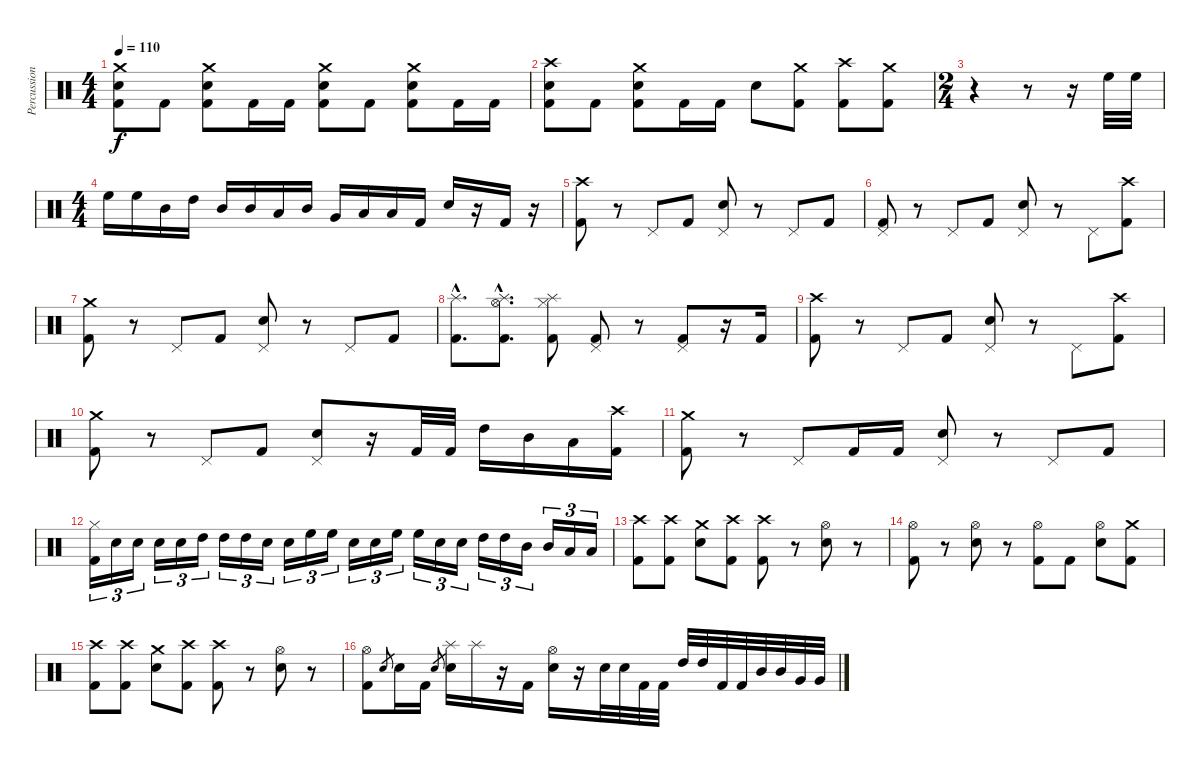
\track ("Percussion" "Percussion") {instrument percussion}
\staff {score}
\articulation defaults
\ts (4 4)
\tempo 110
\clef neutral
\ks c
("Crash medium (hit)" "Electric Snare (hit)" "Kick (hit) 2").8{dy f} "Kick (hit) 2".8 ("Crash medium (hit)" "Electric Snare (hit)" "Kick (hit) 2").8 "Kick (hit) 2".16 "Kick (hit) 2".16 ("Crash medium (hit)" "Electric Snare (hit)" "Kick (hit) 2").8 "Kick (hit) 2".8 ("Crash medium (hit)" "Electric Snare (hit)" "Kick (hit) 2").8 "Kick (hit) 2".16 "Kick (hit) 2".16 |
("Crash high (hit)" "Electric Snare (hit)" "Kick (hit) 2").8 "Kick (hit) 2".8 ("Crash medium (hit)" "Electric Snare (hit)" "Kick (hit) 2").8 "Kick (hit) 2".16 "Kick (hit) 2".16 "Electric Snare (hit)".8 ("Crash medium (hit)" "Kick (hit) 2").8 ("Crash high (hit)" "Kick (hit) 2").8 ("Crash medium (hit)" "Kick (hit) 2").8 |
\ts (2 4)
r.4 r.8 r.16 "High Floor Tom (hit)".32 "High Floor Tom (hit)".32 |
\ts (4 4)
"High Floor Tom (hit)".16 "High Floor Tom (hit)".16 "Mid Tom (hit)".16 "High Tom (hit)".16 "Mid Tom (hit)".16 "Mid Tom (hit)".16 "Low Tom (hit)".16 "Mid Tom (hit)".16 "Very Low Tom (hit)".16 "Low Tom (hit)".16 "Low Tom (hit)".16 "Kick (hit) 2".16 "Electric Snare (hit)".16 r.16 "Kick (hit) 2".16 r.16 |
("Crash high (hit)" "Kick (hit) 2").8 r.8 "Pedal Hi-Hat (hit)".8 "Kick (hit) 2".8 ("Pedal Hi-Hat (hit)" "Electric Snare (hit)").8 r.8 "Pedal Hi-Hat (hit)".8 "Kick (hit) 2".8 |
("Pedal Hi-Hat (hit)" "Kick (hit) 2").8 r.8 "Pedal Hi-Hat (hit)".8 "Kick (hit) 2".8 ("Pedal Hi-Hat (hit)" "Electric Snare (hit)").8 r.8 "Pedal Hi-Hat (hit)".8 ("Crash high (hit)" "Kick (hit) 2").8 |
("Crash medium (hit)" "Kick (hit) 2").8 r.8 "Pedal Hi-Hat (hit)".8 "Kick (hit) 2".8 ("Pedal Hi-Hat (hit)" "Electric Snare (hit)").8 r.8 "Pedal Hi-Hat (hit)".8 "Kick (hit) 2".8 |
("Splash (hit)"{hac} "Kick (hit) 2"{hac}).8{d} ("Splash (hit)"{hac} "Hi-Hat (open)"{hac} "Kick (hit) 2"{hac}).8{d} ("Splash (hit)" "Hi-Hat (closed)" "Kick (hit) 2").8 ("Pedal Hi-Hat (hit)" "Kick (hit) 2").8 r.8 ("Pedal Hi-Hat (hit)" "Kick (hit) 2").8 r.16 "Kick (hit) 2".16 |
("Crash high (hit)" "Kick (hit) 2").8 r.8 "Pedal Hi-Hat (hit)".8 "Kick (hit) 2".8 ("Pedal Hi-Hat (hit)" "Electric Snare (hit)").8 r.8 "Pedal Hi-Hat (hit)".8 ("Crash high (hit)" "Kick (hit) 2").8 |
("Crash medium (hit)" "Kick (hit) 2").8 r.8 "Pedal Hi-Hat (hit)".8 "Kick (hit) 2".8 ("Pedal Hi-Hat (hit)" "Electric Snare (hit)").8 r.16 "Kick (hit) 2".32 "Kick (hit) 2".32 "High Tom (hit)".16 "Mid Tom (hit)".16 "Low Tom (hit)".16 ("Crash high (hit)" "Kick (hit) 2").16 |
("Crash medium (hit)" "Kick (hit) 2").8 r.8 "Pedal Hi-Hat (hit)".8 "Kick (hit) 2".16 "Kick (hit) 2".16 ("Pedal Hi-Hat (hit)" "Electric Snare (hit)").8 r.8 "Pedal Hi-Hat (hit)".8 "Kick (hit) 2".8 |
("Hi-Hat (closed)" "Kick (hit) 2").16{tu (3 2)} "Electric Snare (hit)".16{tu (3 2)} "Electric Snare (hit)".16{tu (3 2)} "Electric Snare (hit)".16{tu (3 2)} "Electric Snare (hit)".16{tu (3 2)} "High Tom (hit)".16{tu (3 2)} "High Tom (hit)".16{tu (3 2)} "High Tom (hit)".16{tu (3 2)} "Electric Snare (hit)".16{tu (3 2)} "Electric Snare (hit)".16{tu (3 2)} "High Floor Tom (hit)".16{tu (3 2)} "High Floor Tom (hit)".16{tu (3 2)} "Electric Snare (hit)".16{tu (3 2)} "Electric Snare (hit)".16{tu (3 2)} "High Floor Tom (hit)".16{tu (3 2)} "High Floor Tom (hit)".16{tu (3 2)} "Electric Snare (hit)".16{tu (3 2)} "Electric Snare (hit)".16{tu (3 2)} "High Tom (hit)".16{tu (3 2)} "High Tom (hit)".16{tu (3 2)} "Mid Tom (hit)".16{tu (3 2)} "Mid Tom (hit)".16{tu (3 2)} "Low Tom (hit)".16{tu (3 2)} "Low Tom (hit)".16{tu (3 2)} |
("Crash high (hit)" "Kick (hit) 2").8 ("Crash high (hit)" "Kick (hit) 2").8 ("Crash medium (hit)" "Electric Snare (hit)").8 ("Crash high (hit)" "Kick (hit) 2").8 ("Crash high (hit)" "Kick (hit) 2").8 r.8 ("Hi-Hat (open)" "Electric Snare (hit)").8 r.8 |
("Hi-Hat (open)" "Kick (hit) 2").8 r.8 ("Hi-Hat (open)" "Electric Snare (hit)").8 r.8 ("Hi-Hat (open)" "Kick (hit) 2").8 "Kick (hit) 2".8 ("Hi-Hat (open)" "Electric Snare (hit)").8 ("Crash medium (hit)" "Kick (hit) 2").8 |
("Crash high (hit)" "Kick (hit) 2").8 ("Crash high (hit)" "Kick (hit) 2").8 ("Crash medium (hit)" "Electric Snare (hit)").8 ("Crash high (hit)" "Kick (hit) 2").8 ("Crash high (hit)" "Kick (hit) 2").8 r.8 ("Hi-Hat (open)" "Electric Snare (hit)").8 r.8 |
("Hi-Hat (open)" "Kick (hit) 2").8 "Electric Snare (hit)".8{gr} "Electric Snare (hit)".16 "Kick (hit) 2".16 "Electric Snare (hit)".8{gr} ("Splash (hit)" "Electric Snare (hit)").16 "Splash (hit)".16 r.16 "Kick (hit) 2".16 ("Hi-Hat (open)" "Electric Snare (hit)").16 r.16{volume 0} "Electric Snare (hit)".32{volume 16} "Electric Snare (hit)".32 "Kick (hit) 2".32 "Kick (hit) 2".32 "High Tom (hit)".32 "High Tom (hit)".32 "Kick (hit) 2".32 "Kick (hit) 2".32 "Mid Tom (hit)".32 "Mid Tom (hit)".32 "Very Low Tom (hit)".32 "Very Low Tom (hit)".32
